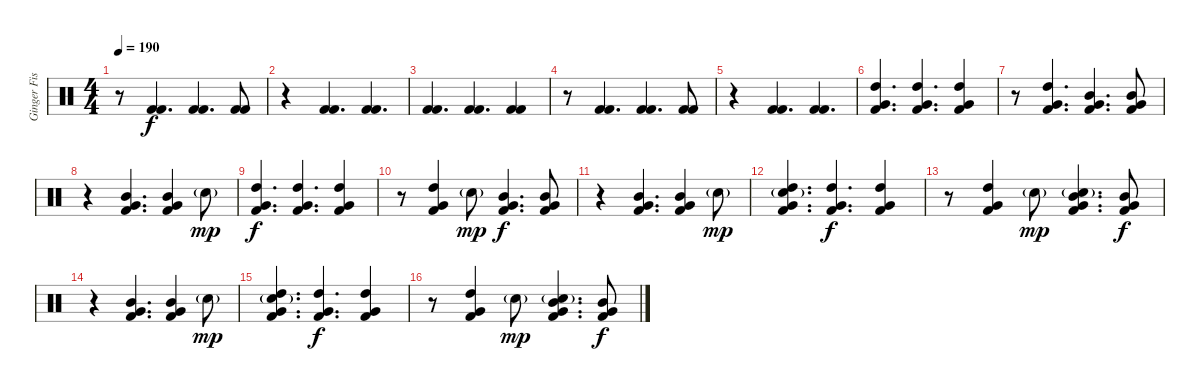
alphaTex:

\track ("Ginger Fish" "Ginger Fis") {instrument percussion}
\staff {score}
\articulation defaults
\ts (4 4)
\tempo 190
\clef neutral
\ks c
r.8{dy f} ("Kick (hit) 2" "Kick (hit) 2").4{d} ("Kick (hit) 2" "Kick (hit) 2").4{d} ("Kick (hit) 2" "Kick (hit) 2").8 |
r.4 ("Kick (hit) 2" "Kick (hit) 2").4{d} ("Kick (hit) 2" "Kick (hit) 2").4{d} |
("Kick (hit) 2" "Kick (hit) 2").4{d} ("Kick (hit) 2" "Kick (hit) 2").4{d} ("Kick (hit) 2" "Kick (hit) 2").4 |
r.8 ("Kick (hit) 2" "Kick (hit) 2").4{d} ("Kick (hit) 2" "Kick (hit) 2").4{d} ("Kick (hit) 2" "Kick (hit) 2").8 |
r.4 ("Kick (hit) 2" "Kick (hit) 2").4{d} ("Kick (hit) 2" "Kick (hit) 2").4{d} |
("High Tom (hit)" "Very Low Tom (hit)" "Kick (hit) 2").4{d} ("High Tom (hit)" "Very Low Tom (hit)" "Kick (hit) 2").4{d} ("High Tom (hit)" "Very Low Tom (hit)" "Kick (hit) 2").4 |
r.8 ("High Tom (hit)" "Very Low Tom (hit)" "Kick (hit) 2").4{d} ("Mid Tom (hit)" "Very Low Tom (hit)" "Kick (hit) 2").4{d} ("Mid Tom (hit)" "Very Low Tom (hit)" "Kick (hit) 2").8 |
r.4 ("Mid Tom (hit)" "Very Low Tom (hit)" "Kick (hit) 2").4{d} ("Mid Tom (hit)" "Very Low Tom (hit)" "Kick (hit) 2").4 "Electric Snare (hit)"{g}.8{dy mp} |
("High Tom (hit)" "Very Low Tom (hit)" "Kick (hit) 2").4{d dy f} ("High Tom (hit)" "Very Low Tom (hit)" "Kick (hit) 2").4{d} ("High Tom (hit)" "Very Low Tom (hit)" "Kick (hit) 2").4 |
r.8 ("High Tom (hit)" "Very Low Tom (hit)" "Kick (hit) 2").4 "Electric Snare (hit)"{g}.8{dy mp} ("Mid Tom (hit)" "Very Low Tom (hit)" "Kick (hit) 2").4{d dy f} ("Mid Tom (hit)" "Very Low Tom (hit)" "Kick (hit) 2").8 |
r.4 ("Mid Tom (hit)" "Very Low Tom (hit)" "Kick (hit) 2").4{d} ("Mid Tom (hit)" "Very Low Tom (hit)" "Kick (hit) 2").4 "Electric Snare (hit)"{g}.8{dy mp} |
("High Tom (hit)" "Very Low Tom (hit)" "Electric Snare (hit)"{g} "Kick (hit) 2").4{d} ("High Tom (hit)" "Very Low Tom (hit)" "Kick (hit) 2").4{d dy f} ("High Tom (hit)" "Very Low Tom (hit)" "Kick (hit) 2").4 |
r.8 ("High Tom (hit)" "Very Low Tom (hit)" "Kick (hit) 2").4 "Electric Snare (hit)"{g}.8{dy mp} ("Mid Tom (hit)" "Very Low Tom (hit)" "Electric Snare (hit)"{g} "Kick (hit) 2").4{d} ("Mid Tom (hit)" "Very Low Tom (hit)" "Kick (hit) 2").8{dy f} |
r.4 ("Mid Tom (hit)" "Very Low Tom (hit)" "Kick (hit) 2").4{d} ("Mid Tom (hit)" "Very Low Tom (hit)" "Kick (hit) 2").4 "Electric Snare (hit)"{g}.8{dy mp} |
("High Tom (hit)" "Very Low Tom (hit)" "Electric Snare (hit)"{g} "Kick (hit) 2").4{d} ("High Tom (hit)" "Very Low Tom (hit)" "Kick (hit) 2").4{d dy f} ("High Tom (hit)" "Very Low Tom (hit)" "Kick (hit) 2").4 |
r.8 ("High Tom (hit)" "Very Low Tom (hit)" "Kick (hit) 2").4 "Electric Snare (hit)"{g}.8{dy mp} ("Mid Tom (hit)" "Very Low Tom (hit)" "Electric Snare (hit)"{g} "Kick (hit) 2").4{d} ("Mid Tom (hit)" "Very Low Tom (hit)" "Kick (hit) 2").8{dy f}
